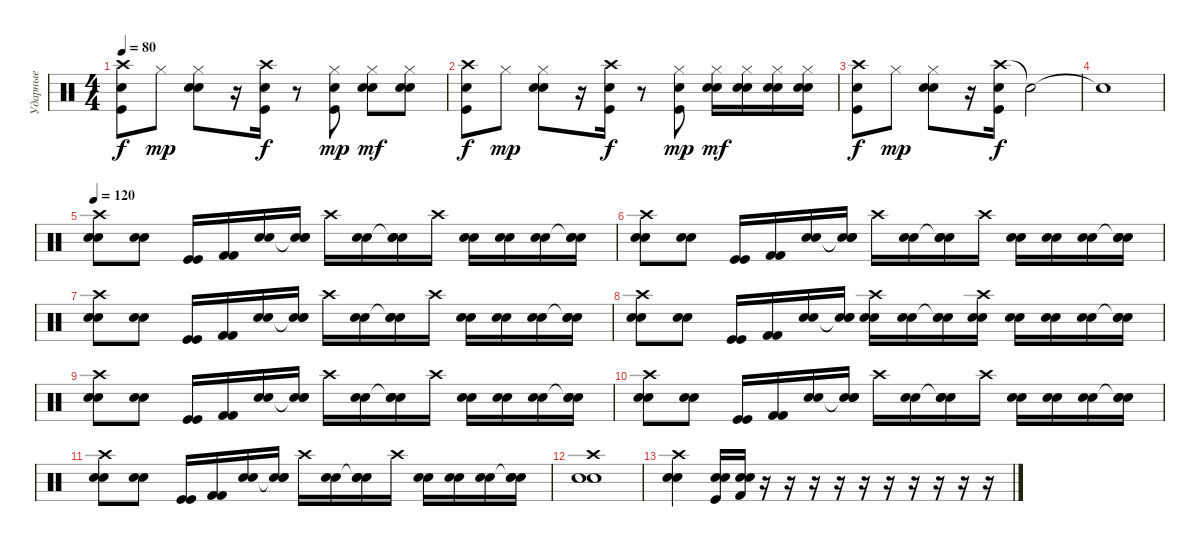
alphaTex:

\track ("Ударные" "Ударные") {instrument percussion}
\staff {score}
\articulation defaults
\ts (4 4)
\tempo 80
\clef neutral
\ks c
("Crash high (hit)" "Kick (hit)" "Snare (hit) 2").8{dy f} "Hi-Hat (closed)".8{dy mp} ("Hi-Hat (closed)" "Electric Snare (hit)" "Electric Snare (hit)").8 r.16 ("Crash high (hit)" "Kick (hit)" "Snare (hit) 2").16{dy f} r.8 ("Hi-Hat (closed)" "Kick (hit)" "Snare (hit) 2").8{dy mp} ("Hi-Hat (closed)" "Electric Snare (hit)" "Electric Snare (hit)").8{dy mf} ("Hi-Hat (closed)" "Electric Snare (hit)" "Electric Snare (hit)").8 |
("Crash high (hit)" "Kick (hit)" "Snare (hit) 2").8{dy f} "Hi-Hat (closed)".8{dy mp} ("Hi-Hat (closed)" "Electric Snare (hit)" "Electric Snare (hit)").8 r.16 ("Crash high (hit)" "Kick (hit)" "Snare (hit) 2").16{dy f} r.8 ("Hi-Hat (closed)" "Kick (hit)" "Snare (hit) 2").8{dy mp} ("Hi-Hat (closed)" "Electric Snare (hit)" "Electric Snare (hit)").16{dy mf} ("Hi-Hat (closed)" "Electric Snare (hit)" "Electric Snare (hit)").16 ("Hi-Hat (closed)" "Electric Snare (hit)" "Electric Snare (hit)").16 ("Hi-Hat (closed)" "Electric Snare (hit)" "Electric Snare (hit)").16 |
("Crash high (hit)" "Kick (hit)" "Snare (hit) 2").8{dy f} "Hi-Hat (closed)".8{dy mp} ("Hi-Hat (closed)" "Electric Snare (hit)" "Electric Snare (hit)").8 r.16 ("Crash high (hit)" "Kick (hit)" "Snare (hit) 2").16{dy f} "Snare (hit)"{t}.2 |
"Snare (hit)"{t}.1 |
\tempo 120
("Crash high (hit)" "Electric Snare (hit)" "Electric Snare (hit)").8 ("Electric Snare (hit)" "Electric Snare (hit)").8 ("Kick (hit)" "Kick (hit)").16 ("Kick (hit) 2" "Kick (hit) 2").16 ("Electric Snare (hit)" "Electric Snare (hit)").16 ("Snare (hit)"{t} "Electric Snare (hit)" "Electric Snare (hit)").16 "Crash high (hit)".16 ("Electric Snare (hit)" "Electric Snare (hit)").16 ("Snare (hit)"{t} "Electric Snare (hit)" "Electric Snare (hit)").16 "Crash high (hit)".16 ("Electric Snare (hit)" "Electric Snare (hit)").16 ("Electric Snare (hit)" "Electric Snare (hit)").16 ("Electric Snare (hit)" "Electric Snare (hit)").16 ("Snare (hit)"{t} "Electric Snare (hit)" "Electric Snare (hit)").16 |
("Crash high (hit)" "Electric Snare (hit)" "Electric Snare (hit)").8 ("Electric Snare (hit)" "Electric Snare (hit)").8 ("Kick (hit)" "Kick (hit)").16 ("Kick (hit) 2" "Kick (hit) 2").16 ("Electric Snare (hit)" "Electric Snare (hit)").16 ("Snare (hit)"{t} "Electric Snare (hit)" "Electric Snare (hit)").16 "Crash high (hit)".16 ("Electric Snare (hit)" "Electric Snare (hit)").16 ("Snare (hit)"{t} "Electric Snare (hit)" "Electric Snare (hit)").16 "Crash high (hit)".16 ("Electric Snare (hit)" "Electric Snare (hit)").16 ("Electric Snare (hit)" "Electric Snare (hit)").16 ("Electric Snare (hit)" "Electric Snare (hit)").16 ("Snare (hit)"{t} "Electric Snare (hit)" "Electric Snare (hit)").16 |
("Crash high (hit)" "Electric Snare (hit)" "Electric Snare (hit)").8 ("Electric Snare (hit)" "Electric Snare (hit)").8 ("Kick (hit)" "Kick (hit)").16 ("Kick (hit) 2" "Kick (hit) 2").16 ("Electric Snare (hit)" "Electric Snare (hit)").16 ("Snare (hit)"{t} "Electric Snare (hit)" "Electric Snare (hit)").16 "Crash high (hit)".16 ("Electric Snare (hit)" "Electric Snare (hit)").16 ("Snare (hit)"{t} "Electric Snare (hit)" "Electric Snare (hit)").16 "Crash high (hit)".16 ("Electric Snare (hit)" "Electric Snare (hit)").16 ("Electric Snare (hit)" "Electric Snare (hit)").16 ("Electric Snare (hit)" "Electric Snare (hit)").16 ("Snare (hit)"{t} "Electric Snare (hit)" "Electric Snare (hit)").16 |
("Crash high (hit)" "Electric Snare (hit)" "Electric Snare (hit)").8 ("Electric Snare (hit)" "Electric Snare (hit)").8 ("Kick (hit)" "Kick (hit)").16 ("Kick (hit) 2" "Kick (hit) 2").16 ("Electric Snare (hit)" "Electric Snare (hit)").16 ("Snare (hit)"{t} "Electric Snare (hit)" "Electric Snare (hit)").16 ("Crash high (hit)" "Electric Snare (hit)" "Electric Snare (hit)").16 ("Electric Snare (hit)" "Electric Snare (hit)").16 ("Snare (hit)"{t} "Electric Snare (hit)" "Electric Snare (hit)").16 ("Crash high (hit)" "Electric Snare (hit)" "Electric Snare (hit)").16 ("Electric Snare (hit)" "Electric Snare (hit)").16 ("Electric Snare (hit)" "Electric Snare (hit)").16 ("Electric Snare (hit)" "Electric Snare (hit)").16 ("Snare (hit)"{t} "Electric Snare (hit)" "Electric Snare (hit)").16 |
("Crash high (hit)" "Electric Snare (hit)" "Electric Snare (hit)").8 ("Electric Snare (hit)" "Electric Snare (hit)").8 ("Kick (hit)" "Kick (hit)").16 ("Kick (hit) 2" "Kick (hit) 2").16 ("Electric Snare (hit)" "Electric Snare (hit)").16 ("Snare (hit)"{t} "Electric Snare (hit)" "Electric Snare (hit)").16 "Crash high (hit)".16 ("Electric Snare (hit)" "Electric Snare (hit)").16 ("Snare (hit)"{t} "Electric Snare (hit)" "Electric Snare (hit)").16 "Crash high (hit)".16 ("Electric Snare (hit)" "Electric Snare (hit)").16 ("Electric Snare (hit)" "Electric Snare (hit)").16 ("Electric Snare (hit)" "Electric Snare (hit)").16 ("Snare (hit)"{t} "Electric Snare (hit)" "Electric Snare (hit)").16 |
("Crash high (hit)" "Electric Snare (hit)" "Electric Snare (hit)").8 ("Electric Snare (hit)" "Electric Snare (hit)").8 ("Kick (hit)" "Kick (hit)").16 ("Kick (hit) 2" "Kick (hit) 2").16 ("Electric Snare (hit)" "Electric Snare (hit)").16 ("Snare (hit)"{t} "Electric Snare (hit)" "Electric Snare (hit)").16 "Crash high (hit)".16 ("Electric Snare (hit)" "Electric Snare (hit)").16 ("Snare (hit)"{t} "Electric Snare (hit)" "Electric Snare (hit)").16 "Crash high (hit)".16 ("Electric Snare (hit)" "Electric Snare (hit)").16 ("Electric Snare (hit)" "Electric Snare (hit)").16 ("Electric Snare (hit)" "Electric Snare (hit)").16 ("Snare (hit)"{t} "Electric Snare (hit)" "Electric Snare (hit)").16 |
("Crash high (hit)" "Electric Snare (hit)" "Electric Snare (hit)").8 ("Electric Snare (hit)" "Electric Snare (hit)").8 ("Kick (hit)" "Kick (hit)").16 ("Kick (hit) 2" "Kick (hit) 2").16 ("Electric Snare (hit)" "Electric Snare (hit)").16 ("Snare (hit)"{t} "Electric Snare (hit)" "Electric Snare (hit)").16 "Crash high (hit)".16 ("Electric Snare (hit)" "Electric Snare (hit)").16 ("Snare (hit)"{t} "Electric Snare (hit)" "Electric Snare (hit)").16 "Crash high (hit)".16 ("Electric Snare (hit)" "Electric Snare (hit)").16 ("Electric Snare (hit)" "Electric Snare (hit)").16 ("Electric Snare (hit)" "Electric Snare (hit)").16 ("Snare (hit)"{t} "Electric Snare (hit)" "Electric Snare (hit)").16 |
("Crash high (hit)" "Electric Snare (hit)" "Electric Snare (hit)").1 |
("Crash high (hit)" "Electric Snare (hit)" "Electric Snare (hit)").4 ("Electric Snare (hit)" "Electric Snare (hit)" "Kick (hit)").16 ("Electric Snare (hit)" "Electric Snare (hit)" "Kick (hit) 2").16 r.16 r.16 r.16 r.16 r.16 r.16 r.16 r.16 r.16 r.16
